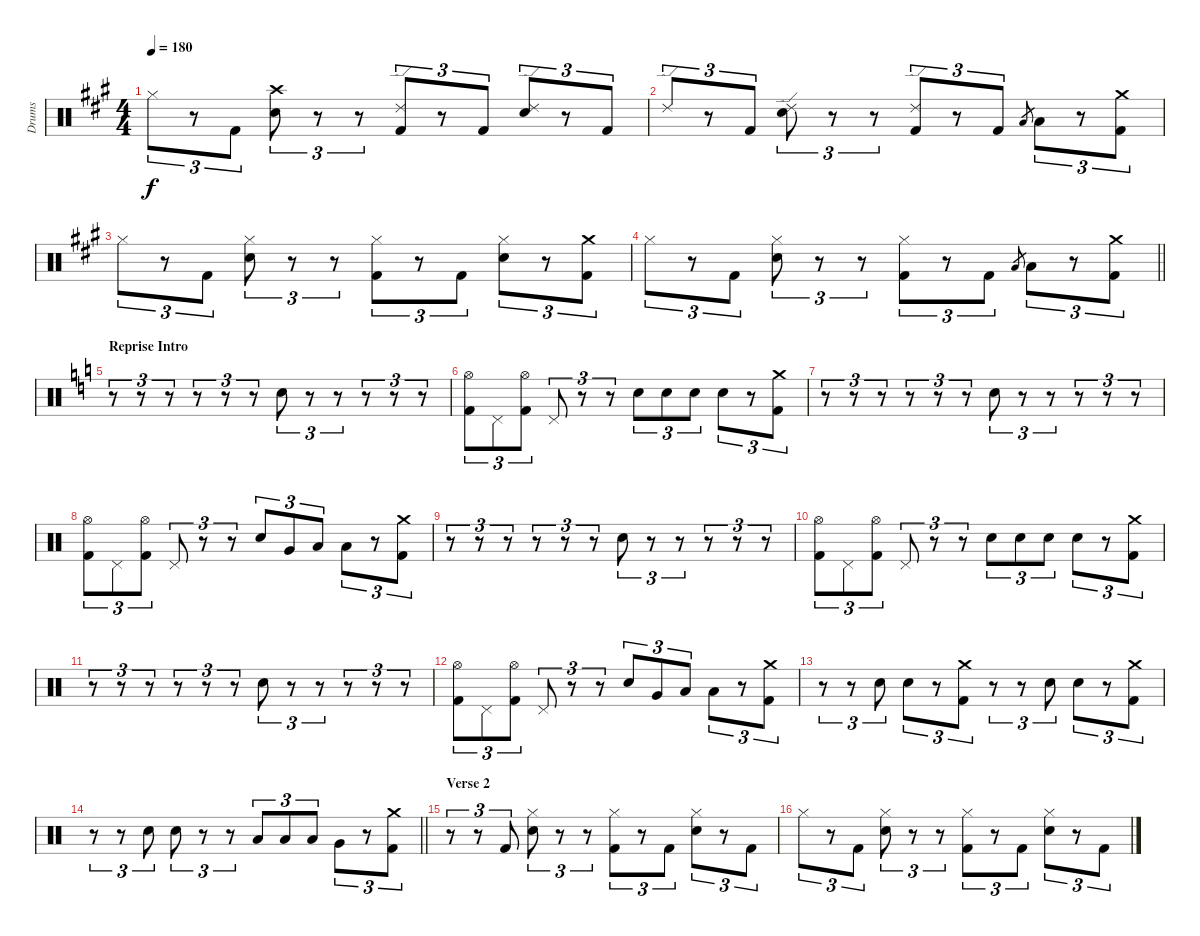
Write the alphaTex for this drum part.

\track ("Drums" "Drums") {instrument percussion}
\staff {score}
\articulation defaults
\ts (4 4)
\tempo 180
\clef neutral
\ks a "Hi-Hat (closed)".8{tu (3 2) dy f}
r.8{tu (3 2)} "Kick (hit) 2".8{tu (3 2)} ("Crash high (hit)" "Snare (hit) 2").8{tu (3 2)} r.8{tu (3 2)} r.8{tu (3 2)} ("Ride (edge) 2" "Kick (hit) 2").8{tu (3 2)} r.8{tu (3 2)} "Kick (hit) 2".8{tu (3 2)} ("Ride (edge) 2" "Snare (hit) 2").8{tu (3 2)} r.8{tu (3 2)} "Kick (hit) 2".8{tu (3 2)} |
"Ride (edge) 2".8{tu (3 2)} r.8{tu (3 2)} "Kick (hit) 2".8{tu (3 2)} ("Ride (edge) 2" "Snare (hit) 2").8{tu (3 2)} r.8{tu (3 2)} r.8{tu (3 2)} ("Ride (edge) 2" "Kick (hit) 2").8{tu (3 2)} r.8{tu (3 2)} "Kick (hit) 2".8{tu (3 2)} "Low Tom (hit)".8{gr} "Low Floor Tom (hit)".8{tu (3 2)} r.8{tu (3 2)} ("Crash medium (hit)" "Kick (hit) 2").8{tu (3 2)} |
"Hi-Hat (closed)".8{tu (3 2)} r.8{tu (3 2)} "Kick (hit) 2".8{tu (3 2)} ("Hi-Hat (closed)" "Snare (hit) 2").8{tu (3 2)} r.8{tu (3 2)} r.8{tu (3 2)} ("Hi-Hat (closed)" "Kick (hit) 2").8{tu (3 2)} r.8{tu (3 2)} "Kick (hit) 2".8{tu (3 2)} ("Hi-Hat (closed)" "Snare (hit) 2").8{tu (3 2)} r.8{tu (3 2)} ("Crash medium (hit)" "Kick (hit) 2").8{tu (3 2)} |
\barLineRight lightlight "Hi-Hat (closed)".8{tu (3 2)}
r.8{tu (3 2)} "Kick (hit) 2".8{tu (3 2)} ("Hi-Hat (closed)" "Snare (hit) 2").8{tu (3 2)} r.8{tu (3 2)} r.8{tu (3 2)} ("Hi-Hat (closed)" "Kick (hit) 2").8{tu (3 2)} r.8{tu (3 2)} "Kick (hit) 2".8{tu (3 2)} "Low Tom (hit)".8{gr} "Low Floor Tom (hit)".8{tu (3 2)} r.8{tu (3 2)} ("Crash medium (hit)" "Kick (hit) 2").8{tu (3 2)} |
\section ("" "Reprise Intro")
\ks c
r.8{tu (3 2)} r.8{tu (3 2)} r.8{tu (3 2)} r.8{tu (3 2)} r.8{tu (3 2)} r.8{tu (3 2)} "Snare (hit) 2".8{tu (3 2)} r.8{tu (3 2)} r.8{tu (3 2)} r.8{tu (3 2)} r.8{tu (3 2)} r.8{tu (3 2)} |
("Hi-Hat (open)" "Kick (hit) 2").8{tu (3 2)} "Pedal Hi-Hat (hit)".8{tu (3 2)} ("Hi-Hat (open)" "Kick (hit) 2").8{tu (3 2)} "Pedal Hi-Hat (hit)".8{tu (3 2)} r.8{tu (3 2)} r.8{tu (3 2)} "Snare (hit) 2".8{tu (3 2)} "Snare (hit) 2".8{tu (3 2)} "Snare (hit) 2".8{tu (3 2)} "Snare (hit) 2".8{tu (3 2)} r.8{tu (3 2)} ("Crash medium (hit)" "Kick (hit) 2").8{tu (3 2)} |
r.8{tu (3 2)} r.8{tu (3 2)} r.8{tu (3 2)} r.8{tu (3 2)} r.8{tu (3 2)} r.8{tu (3 2)} "Snare (hit) 2".8{tu (3 2)} r.8{tu (3 2)} r.8{tu (3 2)} r.8{tu (3 2)} r.8{tu (3 2)} r.8{tu (3 2)} |
("Hi-Hat (open)" "Kick (hit) 2").8{tu (3 2)} "Pedal Hi-Hat (hit)".8{tu (3 2)} ("Hi-Hat (open)" "Kick (hit) 2").8{tu (3 2)} "Pedal Hi-Hat (hit)".8{tu (3 2)} r.8{tu (3 2)} r.8{tu (3 2)} "Snare (hit) 2".8{tu (3 2)} "Very Low Tom (hit)".8{tu (3 2)} "Low Tom (hit)".8{tu (3 2)} "Low Floor Tom (hit)".8{tu (3 2)} r.8{tu (3 2)} ("Crash medium (hit)" "Kick (hit) 2").8{tu (3 2)} |
r.8{tu (3 2)} r.8{tu (3 2)} r.8{tu (3 2)} r.8{tu (3 2)} r.8{tu (3 2)} r.8{tu (3 2)} "Snare (hit) 2".8{tu (3 2)} r.8{tu (3 2)} r.8{tu (3 2)} r.8{tu (3 2)} r.8{tu (3 2)} r.8{tu (3 2)} |
("Hi-Hat (open)" "Kick (hit) 2").8{tu (3 2)} "Pedal Hi-Hat (hit)".8{tu (3 2)} ("Hi-Hat (open)" "Kick (hit) 2").8{tu (3 2)} "Pedal Hi-Hat (hit)".8{tu (3 2)} r.8{tu (3 2)} r.8{tu (3 2)} "Snare (hit) 2".8{tu (3 2)} "Snare (hit) 2".8{tu (3 2)} "Snare (hit) 2".8{tu (3 2)} "Snare (hit) 2".8{tu (3 2)} r.8{tu (3 2)} ("Crash medium (hit)" "Kick (hit) 2").8{tu (3 2)} |
r.8{tu (3 2)} r.8{tu (3 2)} r.8{tu (3 2)} r.8{tu (3 2)} r.8{tu (3 2)} r.8{tu (3 2)} "Snare (hit) 2".8{tu (3 2)} r.8{tu (3 2)} r.8{tu (3 2)} r.8{tu (3 2)} r.8{tu (3 2)} r.8{tu (3 2)} |
("Hi-Hat (open)" "Kick (hit) 2").8{tu (3 2)} "Pedal Hi-Hat (hit)".8{tu (3 2)} ("Hi-Hat (open)" "Kick (hit) 2").8{tu (3 2)} "Pedal Hi-Hat (hit)".8{tu (3 2)} r.8{tu (3 2)} r.8{tu (3 2)} "Snare (hit) 2".8{tu (3 2)} "Very Low Tom (hit)".8{tu (3 2)} "Low Tom (hit)".8{tu (3 2)} "Low Floor Tom (hit)".8{tu (3 2)} r.8{tu (3 2)} ("Crash medium (hit)" "Kick (hit) 2").8{tu (3 2)} |
r.8{tu (3 2)} r.8{tu (3 2)} "Snare (hit) 2".8{tu (3 2)} "Snare (hit) 2".8{tu (3 2)} r.8{tu (3 2)} ("Crash medium (hit)" "Kick (hit) 2").8{tu (3 2)} r.8{tu (3 2)} r.8{tu (3 2)} "Snare (hit) 2".8{tu (3 2)} "Snare (hit) 2".8{tu (3 2)} r.8{tu (3 2)} ("Crash medium (hit)" "Kick (hit) 2").8{tu (3 2)} |
\barLineRight lightlight
r.8{tu (3 2)} r.8{tu (3 2)} "Snare (hit) 2".8{tu (3 2)} "Snare (hit) 2".8{tu (3 2)} r.8{tu (3 2)} r.8{tu (3 2)} "Low Tom (hit)".8{tu (3 2)} "Low Tom (hit)".8{tu (3 2)} "Low Tom (hit)".8{tu (3 2)} "Very Low Tom (hit)".8{tu (3 2)} r.8{tu (3 2)} ("Crash medium (hit)" "Kick (hit) 2").8{tu (3 2)} |
\section ("" "Verse 2")
r.8{tu (3 2)} r.8{tu (3 2)} "Kick (hit) 2".8{tu (3 2)} ("Hi-Hat (closed)" "Snare (hit) 2").8{tu (3 2)} r.8{tu (3 2)} r.8{tu (3 2)} ("Hi-Hat (closed)" "Kick (hit) 2").8{tu (3 2)} r.8{tu (3 2)} "Kick (hit) 2".8{tu (3 2)} ("Hi-Hat (closed)" "Snare (hit) 2").8{tu (3 2)} r.8{tu (3 2)} "Kick (hit) 2".8{tu (3 2)} |
"Hi-Hat (closed)".8{tu (3 2)} r.8{tu (3 2)} "Kick (hit) 2".8{tu (3 2)} ("Hi-Hat (closed)" "Snare (hit) 2").8{tu (3 2)} r.8{tu (3 2)} r.8{tu (3 2)} ("Hi-Hat (closed)" "Kick (hit) 2").8{tu (3 2)} r.8{tu (3 2)} "Kick (hit) 2".8{tu (3 2)} ("Hi-Hat (closed)" "Snare (hit) 2").8{tu (3 2)} r.8{tu (3 2)} "Kick (hit) 2".8{tu (3 2)}
